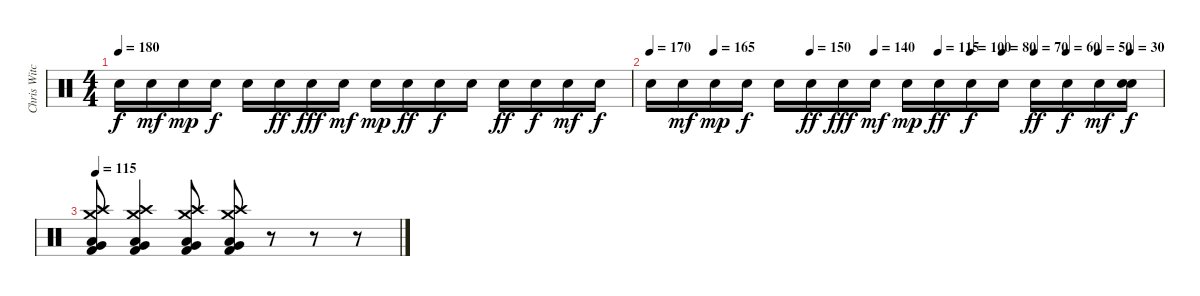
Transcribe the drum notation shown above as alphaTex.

\track ("Chris Witchhunter (Drums)" "Chris Witc") {instrument percussion}
\staff {score}
\articulation defaults
\ts (4 4)
\tempo 180
\clef neutral
\ks c "Snare (hit) 2".16{dy f} "Snare (hit) 2".16{dy mf} "Snare (hit) 2".16{dy mp} "Snare (hit) 2".16{dy f} "Snare (hit) 2".16 "Snare (hit) 2".16{dy ff} "Snare (hit) 2".16{dy fff} "Snare (hit) 2".16{dy mf} "Snare (hit) 2".16{dy mp} "Snare (hit) 2".16{dy ff} "Snare (hit) 2".16{dy f} "Snare (hit) 2".16 "Snare (hit) 2".16{dy ff} "Snare (hit) 2".16{dy f} "Snare (hit) 2".16{dy mf} "Snare (hit) 2".16{dy f}
|
\tempo 170
\tempo (165 0.125)
\tempo (150 0.3125)
\tempo (140 0.4375)
\tempo (115 0.5625)
\tempo (100 0.625)
\tempo (80 0.6875)
\tempo (70 0.75)
\tempo (60 0.8125)
\tempo (50 0.875)
\tempo (30 0.9375)
"Snare (hit) 2".16 "Snare (hit) 2".16{dy mf} "Snare (hit) 2".16{dy mp} "Snare (hit) 2".16{dy f} "Snare (hit) 2".16 "Snare (hit) 2".16{dy ff} "Snare (hit) 2".16{dy fff} "Snare (hit) 2".16{dy mf} "Snare (hit) 2".16{dy mp} "Snare (hit) 2".16{dy ff} "Snare (hit) 2".16{dy f} "Snare (hit) 2".16 "Snare (hit) 2".16{dy ff} "Snare (hit) 2".16{dy f} "Snare (hit) 2".16{dy mf} ("Snare (hit) 2" "Snare (hit) 2").16{dy f} |
\tempo 115
("Very Low Tom (hit)" "Crash high (hit)" "Crash medium (hit)" "Kick (hit) 2" "Low Floor Tom (hit)").8 ("Very Low Tom (hit)" "Crash high (hit)" "Crash medium (hit)" "Kick (hit) 2" "Low Floor Tom (hit)").4 ("Very Low Tom (hit)" "Crash high (hit)" "Crash medium (hit)" "Kick (hit) 2" "Low Floor Tom (hit)").8 ("Very Low Tom (hit)" "Crash high (hit)" "Crash medium (hit)" "Kick (hit) 2" "Low Floor Tom (hit)").8 r.8 r.8 r.8
